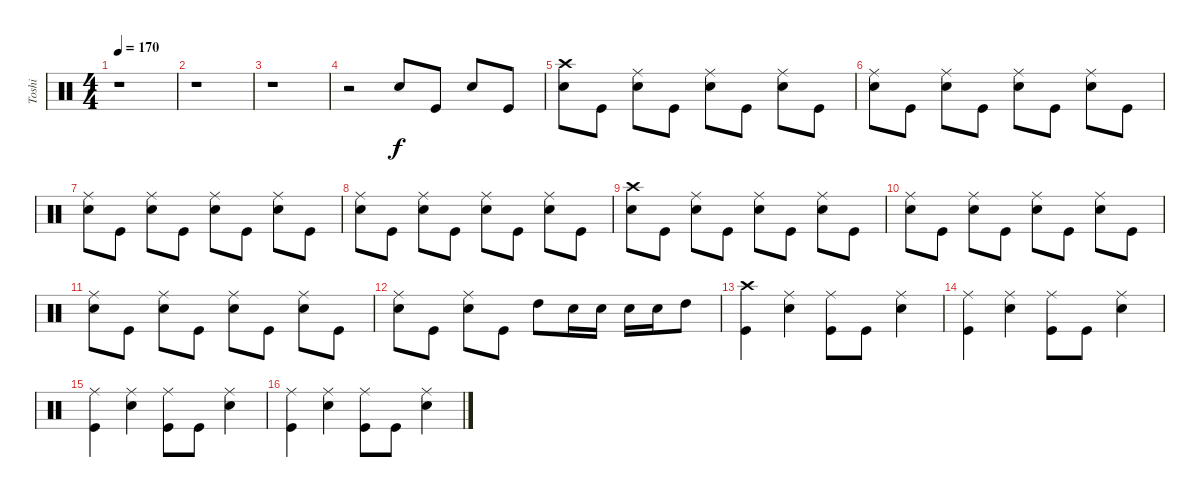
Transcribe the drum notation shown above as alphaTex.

\track ("Toshi" "Toshi") {instrument percussion}
\staff {score}
\articulation defaults
\ts (4 4)
\tempo 170
\clef neutral
\ks c
r.1{dy f} |
r.1 |
r.1 |
r.2 "Snare (hit) 2".8 "Kick (hit)".8 "Snare (hit) 2".8 "Kick (hit)".8 |
("Crash high (hit)" "Snare (hit) 2").8 "Kick (hit)".8 ("Ride (middle)" "Snare (hit) 2").8 "Kick (hit)".8 ("Ride (middle)" "Snare (hit) 2").8 "Kick (hit)".8 ("Ride (middle)" "Snare (hit) 2").8 "Kick (hit)".8 |
("Ride (middle)" "Snare (hit) 2").8 "Kick (hit)".8 ("Ride (middle)" "Snare (hit) 2").8 "Kick (hit)".8 ("Ride (middle)" "Snare (hit) 2").8 "Kick (hit)".8 ("Ride (middle)" "Snare (hit) 2").8 "Kick (hit)".8 |
("Ride (middle)" "Snare (hit) 2").8 "Kick (hit)".8 ("Ride (middle)" "Snare (hit) 2").8 "Kick (hit)".8 ("Ride (middle)" "Snare (hit) 2").8 "Kick (hit)".8 ("Ride (middle)" "Snare (hit) 2").8 "Kick (hit)".8 |
("Ride (middle)" "Snare (hit) 2").8 "Kick (hit)".8 ("Ride (middle)" "Snare (hit) 2").8 "Kick (hit)".8 ("Ride (middle)" "Snare (hit) 2").8 "Kick (hit)".8 ("Ride (middle)" "Snare (hit) 2").8 "Kick (hit)".8 |
("Crash high (hit)" "Snare (hit) 2").8 "Kick (hit)".8 ("Ride (middle)" "Snare (hit) 2").8 "Kick (hit)".8 ("Ride (middle)" "Snare (hit) 2").8 "Kick (hit)".8 ("Ride (middle)" "Snare (hit) 2").8 "Kick (hit)".8 |
("Ride (middle)" "Snare (hit) 2").8 "Kick (hit)".8 ("Ride (middle)" "Snare (hit) 2").8 "Kick (hit)".8 ("Ride (middle)" "Snare (hit) 2").8 "Kick (hit)".8 ("Ride (middle)" "Snare (hit) 2").8 "Kick (hit)".8 |
("Ride (middle)" "Snare (hit) 2").8 "Kick (hit)".8 ("Ride (middle)" "Snare (hit) 2").8 "Kick (hit)".8 ("Ride (middle)" "Snare (hit) 2").8 "Kick (hit)".8 ("Ride (middle)" "Snare (hit) 2").8 "Kick (hit)".8 |
("Ride (middle)" "Snare (hit) 2").8 "Kick (hit)".8 ("Ride (middle)" "Snare (hit) 2").8 "Kick (hit)".8 "High Tom (hit)".8 "Snare (hit) 2".16 "Snare (hit) 2".16 "Snare (hit) 2".16 "Snare (hit) 2".16 "High Tom (hit)".8 |
("Crash high (hit)" "Kick (hit)").4 ("Ride (middle)" "Snare (hit) 2").4 ("Ride (middle)" "Kick (hit)").8 "Kick (hit)".8 ("Ride (middle)" "Snare (hit) 2").4 |
("Ride (middle)" "Kick (hit)").4 ("Ride (middle)" "Snare (hit) 2").4 ("Ride (middle)" "Kick (hit)").8 "Kick (hit)".8 ("Ride (middle)" "Snare (hit) 2").4 |
("Ride (middle)" "Kick (hit)").4 ("Ride (middle)" "Snare (hit) 2").4 ("Ride (middle)" "Kick (hit)").8 "Kick (hit)".8 ("Ride (middle)" "Snare (hit) 2").4 |
("Ride (middle)" "Kick (hit)").4 ("Ride (middle)" "Snare (hit) 2").4 ("Ride (middle)" "Kick (hit)").8 "Kick (hit)".8 ("Ride (middle)" "Snare (hit) 2").4
